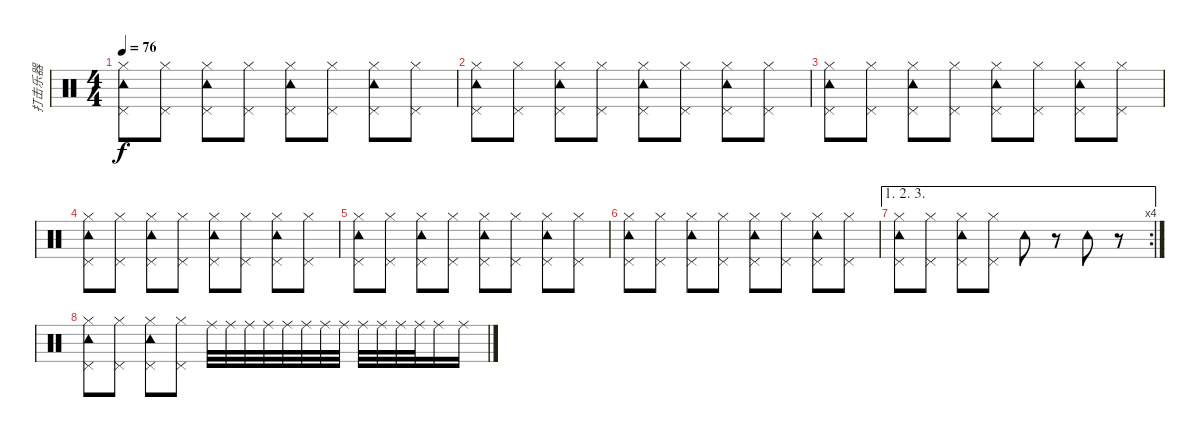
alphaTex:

\track ("打击乐器" "打击乐器") {instrument percussion}
\staff {score}
\articulation defaults
\ts (4 4)
\tempo 76
\clef neutral
\ks c
("Tambourine (hit)" "Pedal Hi-Hat (hit)" "Hi-Hat (closed)").8{dy f} ("Pedal Hi-Hat (hit)" "Hi-Hat (closed)").8 ("Tambourine (hit)" "Pedal Hi-Hat (hit)" "Hi-Hat (closed)").8 ("Pedal Hi-Hat (hit)" "Hi-Hat (closed)").8 ("Tambourine (hit)" "Pedal Hi-Hat (hit)" "Hi-Hat (closed)").8 ("Pedal Hi-Hat (hit)" "Hi-Hat (closed)").8 ("Tambourine (hit)" "Pedal Hi-Hat (hit)" "Hi-Hat (closed)").8 ("Pedal Hi-Hat (hit)" "Hi-Hat (closed)").8 |
("Tambourine (hit)" "Pedal Hi-Hat (hit)" "Hi-Hat (closed)").8 ("Pedal Hi-Hat (hit)" "Hi-Hat (closed)").8 ("Tambourine (hit)" "Pedal Hi-Hat (hit)" "Hi-Hat (closed)").8 ("Pedal Hi-Hat (hit)" "Hi-Hat (closed)").8 ("Tambourine (hit)" "Pedal Hi-Hat (hit)" "Hi-Hat (closed)").8 ("Pedal Hi-Hat (hit)" "Hi-Hat (closed)").8 ("Tambourine (hit)" "Pedal Hi-Hat (hit)" "Hi-Hat (closed)").8 ("Pedal Hi-Hat (hit)" "Hi-Hat (closed)").8 |
("Tambourine (hit)" "Pedal Hi-Hat (hit)" "Hi-Hat (closed)").8 ("Pedal Hi-Hat (hit)" "Hi-Hat (closed)").8 ("Tambourine (hit)" "Pedal Hi-Hat (hit)" "Hi-Hat (closed)").8 ("Pedal Hi-Hat (hit)" "Hi-Hat (closed)").8 ("Tambourine (hit)" "Pedal Hi-Hat (hit)" "Hi-Hat (closed)").8 ("Pedal Hi-Hat (hit)" "Hi-Hat (closed)").8 ("Tambourine (hit)" "Pedal Hi-Hat (hit)" "Hi-Hat (closed)").8 ("Pedal Hi-Hat (hit)" "Hi-Hat (closed)").8 |
("Tambourine (hit)" "Pedal Hi-Hat (hit)" "Hi-Hat (closed)").8 ("Pedal Hi-Hat (hit)" "Hi-Hat (closed)").8 ("Tambourine (hit)" "Pedal Hi-Hat (hit)" "Hi-Hat (closed)").8 ("Pedal Hi-Hat (hit)" "Hi-Hat (closed)").8 ("Tambourine (hit)" "Pedal Hi-Hat (hit)" "Hi-Hat (closed)").8 ("Pedal Hi-Hat (hit)" "Hi-Hat (closed)").8 ("Tambourine (hit)" "Pedal Hi-Hat (hit)" "Hi-Hat (closed)").8 ("Pedal Hi-Hat (hit)" "Hi-Hat (closed)").8 |
("Tambourine (hit)" "Pedal Hi-Hat (hit)" "Hi-Hat (closed)").8 ("Pedal Hi-Hat (hit)" "Hi-Hat (closed)").8 ("Tambourine (hit)" "Pedal Hi-Hat (hit)" "Hi-Hat (closed)").8 ("Pedal Hi-Hat (hit)" "Hi-Hat (closed)").8 ("Tambourine (hit)" "Pedal Hi-Hat (hit)" "Hi-Hat (closed)").8 ("Pedal Hi-Hat (hit)" "Hi-Hat (closed)").8 ("Tambourine (hit)" "Pedal Hi-Hat (hit)" "Hi-Hat (closed)").8 ("Pedal Hi-Hat (hit)" "Hi-Hat (closed)").8 |
("Tambourine (hit)" "Pedal Hi-Hat (hit)" "Hi-Hat (closed)").8 ("Pedal Hi-Hat (hit)" "Hi-Hat (closed)").8 ("Tambourine (hit)" "Pedal Hi-Hat (hit)" "Hi-Hat (closed)").8 ("Pedal Hi-Hat (hit)" "Hi-Hat (closed)").8 ("Tambourine (hit)" "Pedal Hi-Hat (hit)" "Hi-Hat (closed)").8 ("Pedal Hi-Hat (hit)" "Hi-Hat (closed)").8 ("Tambourine (hit)" "Pedal Hi-Hat (hit)" "Hi-Hat (closed)").8 ("Pedal Hi-Hat (hit)" "Hi-Hat (closed)").8 |
\ae (1 2 3)
\rc 4
("Tambourine (hit)" "Pedal Hi-Hat (hit)" "Hi-Hat (closed)").8 ("Pedal Hi-Hat (hit)" "Hi-Hat (closed)").8 ("Tambourine (hit)" "Pedal Hi-Hat (hit)" "Hi-Hat (closed)").8 ("Pedal Hi-Hat (hit)" "Hi-Hat (closed)").8 "Tambourine (hit)".8 r.8 "Tambourine (hit)".8 r.8 |
("Tambourine (hit)" "Pedal Hi-Hat (hit)" "Hi-Hat (closed)").8 ("Pedal Hi-Hat (hit)" "Hi-Hat (closed)").8 ("Tambourine (hit)" "Pedal Hi-Hat (hit)" "Hi-Hat (closed)").8 ("Pedal Hi-Hat (hit)" "Hi-Hat (closed)").8 "Ride (middle)".32 "Ride (middle)".32 "Ride (middle)".32 "Ride (middle)".32 "Ride (middle)".32 "Ride (middle)".32 "Ride (middle)".32 "Ride (middle)".32 "Ride (middle)".32 "Ride (middle)".32 "Ride (middle)".32 "Ride (middle)".32 "Ride (middle)".16 "Ride (middle)".16
